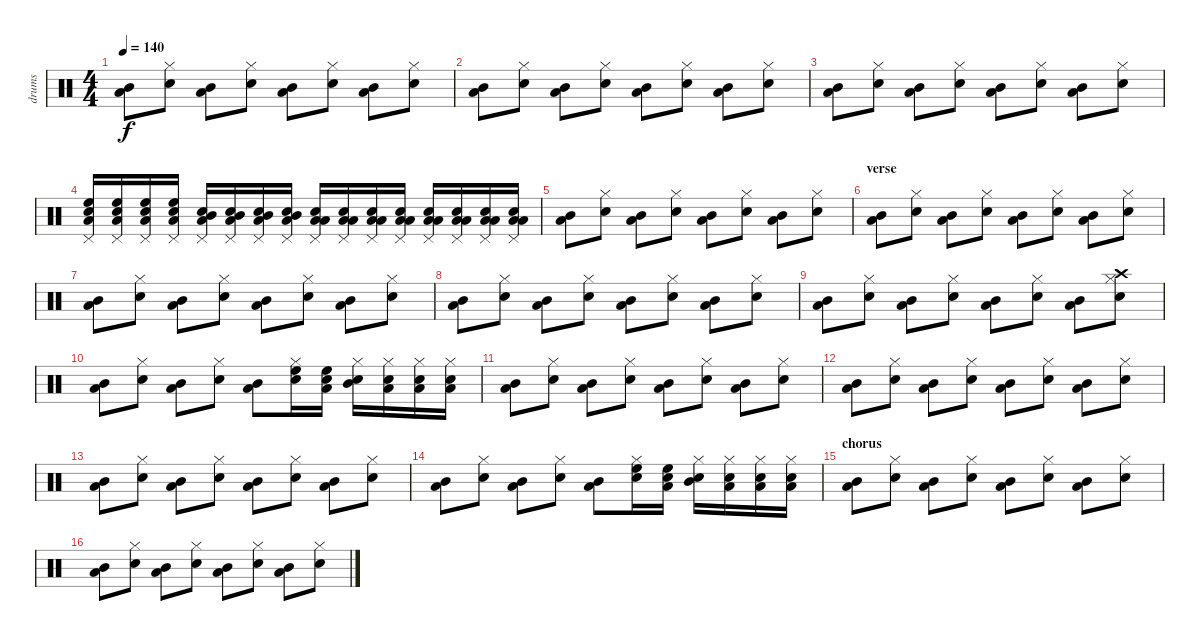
\track ("drums" "drums") {instrument percussion}
\staff {score}
\articulation defaults
\ts (4 4)
\tempo 140
\clef neutral
\ks c
("Low Floor Tom (hit)" "Mid Tom (hit)").8{dy f} ("Hi-Hat (closed)" "Snare (hit) 2").8 ("Mid Tom (hit)" "Low Floor Tom (hit)").8 ("Snare (hit) 2" "Hi-Hat (closed)").8 ("Mid Tom (hit)" "Low Floor Tom (hit)").8 ("Hi-Hat (closed)" "Snare (hit) 2").8 ("Mid Tom (hit)" "Low Floor Tom (hit)").8 ("Hi-Hat (closed)" "Snare (hit) 2").8 |
("Low Floor Tom (hit)" "Mid Tom (hit)").8 ("Hi-Hat (closed)" "Snare (hit) 2").8 ("Mid Tom (hit)" "Low Floor Tom (hit)").8 ("Snare (hit) 2" "Hi-Hat (closed)").8 ("Mid Tom (hit)" "Low Floor Tom (hit)").8 ("Hi-Hat (closed)" "Snare (hit) 2").8 ("Mid Tom (hit)" "Low Floor Tom (hit)").8 ("Hi-Hat (closed)" "Snare (hit) 2").8 |
("Low Floor Tom (hit)" "Mid Tom (hit)").8 ("Hi-Hat (closed)" "Snare (hit) 2").8 ("Mid Tom (hit)" "Low Floor Tom (hit)").8 ("Snare (hit) 2" "Hi-Hat (closed)").8 ("Mid Tom (hit)" "Low Floor Tom (hit)").8 ("Hi-Hat (closed)" "Snare (hit) 2").8 ("Mid Tom (hit)" "Low Floor Tom (hit)").8 ("Hi-Hat (closed)" "Snare (hit) 2").8 |
("Low Floor Tom (hit)" "High Floor Tom (hit)" "Snare (hit) 2" "Pedal Hi-Hat (hit)").16 ("Low Floor Tom (hit)" "High Floor Tom (hit)" "Snare (hit) 2" "Pedal Hi-Hat (hit)").16 ("Low Floor Tom (hit)" "High Floor Tom (hit)" "Snare (hit) 2" "Pedal Hi-Hat (hit)").16 ("Low Floor Tom (hit)" "High Floor Tom (hit)" "Snare (hit) 2" "Pedal Hi-Hat (hit)").16 ("Low Floor Tom (hit)" "Mid Tom (hit)" "Snare (hit) 2" "Pedal Hi-Hat (hit)").16 ("Low Floor Tom (hit)" "Mid Tom (hit)" "Snare (hit) 2" "Pedal Hi-Hat (hit)").16 ("Low Floor Tom (hit)" "Mid Tom (hit)" "Snare (hit) 2" "Pedal Hi-Hat (hit)").16 ("Low Floor Tom (hit)" "Mid Tom (hit)" "Snare (hit) 2" "Pedal Hi-Hat (hit)").16 ("Low Floor Tom (hit)" "Low Tom (hit)" "Snare (hit) 2" "Pedal Hi-Hat (hit)").16 ("Low Floor Tom (hit)" "Low Tom (hit)" "Snare (hit) 2" "Pedal Hi-Hat (hit)").16 ("Low Floor Tom (hit)" "Low Tom (hit)" "Snare (hit) 2" "Pedal Hi-Hat (hit)").16 ("Low Floor Tom (hit)" "Low Tom (hit)" "Snare (hit) 2" "Pedal Hi-Hat (hit)").16 ("Low Floor Tom (hit)" "Low Floor Tom (hit)" "Snare (hit) 2" "Pedal Hi-Hat (hit)").16 ("Low Floor Tom (hit)" "Low Floor Tom (hit)" "Snare (hit) 2" "Pedal Hi-Hat (hit)").16 ("Low Floor Tom (hit)" "Low Floor Tom (hit)" "Snare (hit) 2" "Pedal Hi-Hat (hit)").16 ("Low Floor Tom (hit)" "Low Floor Tom (hit)" "Snare (hit) 2" "Pedal Hi-Hat (hit)").16 |
("Low Floor Tom (hit)" "Mid Tom (hit)").8 ("Hi-Hat (closed)" "Snare (hit) 2").8 ("Mid Tom (hit)" "Low Floor Tom (hit)").8 ("Snare (hit) 2" "Hi-Hat (closed)").8 ("Mid Tom (hit)" "Low Floor Tom (hit)").8 ("Hi-Hat (closed)" "Snare (hit) 2").8 ("Mid Tom (hit)" "Low Floor Tom (hit)").8 ("Hi-Hat (closed)" "Snare (hit) 2").8 |
\section ("" "verse")
("Low Floor Tom (hit)" "Mid Tom (hit)").8 ("Hi-Hat (closed)" "Snare (hit) 2").8 ("Mid Tom (hit)" "Low Floor Tom (hit)").8 ("Snare (hit) 2" "Hi-Hat (closed)").8 ("Mid Tom (hit)" "Low Floor Tom (hit)").8 ("Hi-Hat (closed)" "Snare (hit) 2").8 ("Mid Tom (hit)" "Low Floor Tom (hit)").8 ("Hi-Hat (closed)" "Snare (hit) 2").8 |
("Low Floor Tom (hit)" "Mid Tom (hit)").8 ("Hi-Hat (closed)" "Snare (hit) 2").8 ("Mid Tom (hit)" "Low Floor Tom (hit)").8 ("Snare (hit) 2" "Hi-Hat (closed)").8 ("Mid Tom (hit)" "Low Floor Tom (hit)").8 ("Hi-Hat (closed)" "Snare (hit) 2").8 ("Mid Tom (hit)" "Low Floor Tom (hit)").8 ("Hi-Hat (closed)" "Snare (hit) 2").8 |
("Low Floor Tom (hit)" "Mid Tom (hit)").8 ("Hi-Hat (closed)" "Snare (hit) 2").8 ("Mid Tom (hit)" "Low Floor Tom (hit)").8 ("Snare (hit) 2" "Hi-Hat (closed)").8 ("Mid Tom (hit)" "Low Floor Tom (hit)").8 ("Hi-Hat (closed)" "Snare (hit) 2").8 ("Mid Tom (hit)" "Low Floor Tom (hit)").8 ("Hi-Hat (closed)" "Snare (hit) 2").8 |
("Low Floor Tom (hit)" "Mid Tom (hit)").8 ("Hi-Hat (closed)" "Snare (hit) 2").8 ("Mid Tom (hit)" "Low Floor Tom (hit)").8 ("Snare (hit) 2" "Hi-Hat (closed)").8 ("Mid Tom (hit)" "Low Floor Tom (hit)").8 ("Hi-Hat (closed)" "Snare (hit) 2").8 ("Mid Tom (hit)" "Low Floor Tom (hit)").8 ("Crash high (hit)" "Snare (hit) 2" "Hi-Hat (closed)").8 |
("Low Floor Tom (hit)" "Mid Tom (hit)").8 ("Hi-Hat (closed)" "Snare (hit) 2").8 ("Mid Tom (hit)" "Low Floor Tom (hit)").8 ("Snare (hit) 2" "Hi-Hat (closed)").8 ("Mid Tom (hit)" "Low Floor Tom (hit)").8 ("Hi-Hat (closed)" "Snare (hit) 2" "High Floor Tom (hit)").16 ("Snare (hit) 2" "High Floor Tom (hit)" "Low Floor Tom (hit)").16 ("Snare (hit) 2" "Mid Tom (hit)" "Hi-Hat (closed)").16 ("Snare (hit) 2" "Low Tom (hit)" "Hi-Hat (closed)").16 ("Snare (hit) 2" "Low Floor Tom (hit)" "Hi-Hat (closed)").16 ("Snare (hit) 2" "Low Floor Tom (hit)" "Hi-Hat (closed)").16 |
("Low Floor Tom (hit)" "Mid Tom (hit)").8 ("Hi-Hat (closed)" "Snare (hit) 2").8 ("Mid Tom (hit)" "Low Floor Tom (hit)").8 ("Snare (hit) 2" "Hi-Hat (closed)").8 ("Mid Tom (hit)" "Low Floor Tom (hit)").8 ("Hi-Hat (closed)" "Snare (hit) 2").8 ("Mid Tom (hit)" "Low Floor Tom (hit)").8 ("Hi-Hat (closed)" "Snare (hit) 2").8 |
("Low Floor Tom (hit)" "Mid Tom (hit)").8 ("Hi-Hat (closed)" "Snare (hit) 2").8 ("Mid Tom (hit)" "Low Floor Tom (hit)").8 ("Snare (hit) 2" "Hi-Hat (closed)").8 ("Mid Tom (hit)" "Low Floor Tom (hit)").8 ("Hi-Hat (closed)" "Snare (hit) 2").8 ("Mid Tom (hit)" "Low Floor Tom (hit)").8 ("Hi-Hat (closed)" "Snare (hit) 2").8 |
("Low Floor Tom (hit)" "Mid Tom (hit)").8 ("Hi-Hat (closed)" "Snare (hit) 2").8 ("Mid Tom (hit)" "Low Floor Tom (hit)").8 ("Snare (hit) 2" "Hi-Hat (closed)").8 ("Mid Tom (hit)" "Low Floor Tom (hit)").8 ("Hi-Hat (closed)" "Snare (hit) 2").8 ("Mid Tom (hit)" "Low Floor Tom (hit)").8 ("Hi-Hat (closed)" "Snare (hit) 2").8 |
("Low Floor Tom (hit)" "Mid Tom (hit)").8 ("Hi-Hat (closed)" "Snare (hit) 2").8 ("Mid Tom (hit)" "Low Floor Tom (hit)").8 ("Snare (hit) 2" "Hi-Hat (closed)").8 ("Mid Tom (hit)" "Low Floor Tom (hit)").8 ("Hi-Hat (closed)" "Snare (hit) 2" "High Floor Tom (hit)").16 ("Snare (hit) 2" "High Floor Tom (hit)" "Low Floor Tom (hit)").16 ("Snare (hit) 2" "Mid Tom (hit)" "Hi-Hat (closed)").16 ("Snare (hit) 2" "Low Tom (hit)" "Hi-Hat (closed)").16 ("Snare (hit) 2" "Low Floor Tom (hit)" "Hi-Hat (closed)").16 ("Snare (hit) 2" "Low Floor Tom (hit)" "Hi-Hat (closed)").16 |
\section ("" "chorus")
("Low Floor Tom (hit)" "Mid Tom (hit)").8 ("Hi-Hat (closed)" "Snare (hit) 2").8 ("Mid Tom (hit)" "Low Floor Tom (hit)").8 ("Snare (hit) 2" "Hi-Hat (closed)").8 ("Mid Tom (hit)" "Low Floor Tom (hit)").8 ("Hi-Hat (closed)" "Snare (hit) 2").8 ("Mid Tom (hit)" "Low Floor Tom (hit)").8 ("Hi-Hat (closed)" "Snare (hit) 2").8 |
("Low Floor Tom (hit)" "Mid Tom (hit)").8 ("Hi-Hat (closed)" "Snare (hit) 2").8 ("Mid Tom (hit)" "Low Floor Tom (hit)").8 ("Snare (hit) 2" "Hi-Hat (closed)").8 ("Mid Tom (hit)" "Low Floor Tom (hit)").8 ("Hi-Hat (closed)" "Snare (hit) 2").8 ("Mid Tom (hit)" "Low Floor Tom (hit)").8 ("Hi-Hat (closed)" "Snare (hit) 2").8
